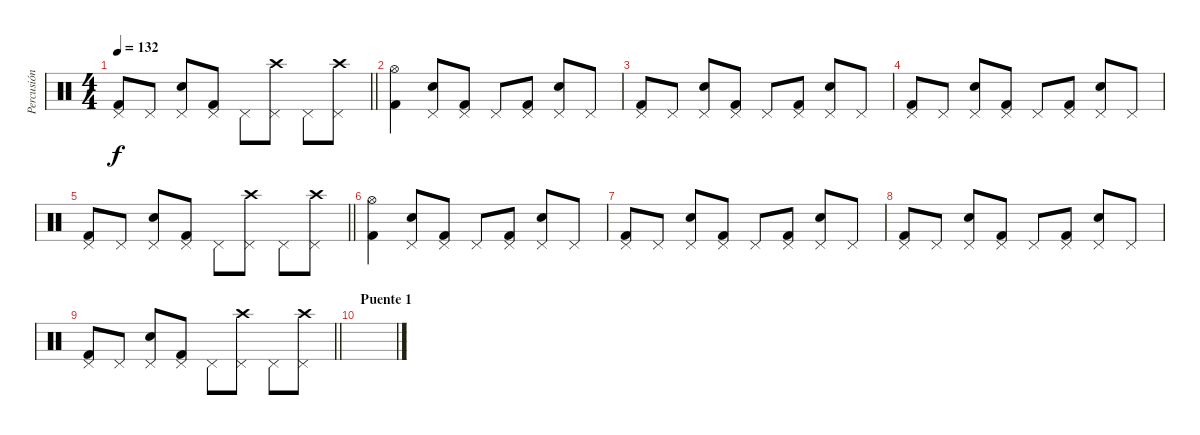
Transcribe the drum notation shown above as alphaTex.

\track ("Percusión" "Percusión") {instrument percussion}
\staff {score}
\articulation defaults
\ts (4 4)
\tempo 132
\clef neutral
\barLineRight lightlight
\ks c
("Pedal Hi-Hat (hit)" "Kick (hit) 2").8{dy f} "Pedal Hi-Hat (hit)".8 ("Pedal Hi-Hat (hit)" "Electric Snare (hit)").8 ("Pedal Hi-Hat (hit)" "Kick (hit) 2").8 "Pedal Hi-Hat (hit)".8 ("Pedal Hi-Hat (hit)" "Crash high (hit)").8 "Pedal Hi-Hat (hit)".8 ("Pedal Hi-Hat (hit)" "Crash high (hit)").8 |
("Hi-Hat (open)" "Kick (hit) 2").4 ("Pedal Hi-Hat (hit)" "Electric Snare (hit)").8 ("Pedal Hi-Hat (hit)" "Kick (hit) 2").8 "Pedal Hi-Hat (hit)".8 ("Pedal Hi-Hat (hit)" "Kick (hit) 2").8 ("Pedal Hi-Hat (hit)" "Electric Snare (hit)").8 "Pedal Hi-Hat (hit)".8 |
("Pedal Hi-Hat (hit)" "Kick (hit) 2").8 "Pedal Hi-Hat (hit)".8 ("Pedal Hi-Hat (hit)" "Electric Snare (hit)").8 ("Pedal Hi-Hat (hit)" "Kick (hit) 2").8 "Pedal Hi-Hat (hit)".8 ("Pedal Hi-Hat (hit)" "Kick (hit) 2").8 ("Pedal Hi-Hat (hit)" "Electric Snare (hit)").8 "Pedal Hi-Hat (hit)".8 |
("Pedal Hi-Hat (hit)" "Kick (hit) 2").8 "Pedal Hi-Hat (hit)".8 ("Pedal Hi-Hat (hit)" "Electric Snare (hit)").8 ("Pedal Hi-Hat (hit)" "Kick (hit) 2").8 "Pedal Hi-Hat (hit)".8 ("Pedal Hi-Hat (hit)" "Kick (hit) 2").8 ("Pedal Hi-Hat (hit)" "Electric Snare (hit)").8 "Pedal Hi-Hat (hit)".8 |
\barLineRight lightlight
("Pedal Hi-Hat (hit)" "Kick (hit) 2").8 "Pedal Hi-Hat (hit)".8 ("Pedal Hi-Hat (hit)" "Electric Snare (hit)").8 ("Pedal Hi-Hat (hit)" "Kick (hit) 2").8 "Pedal Hi-Hat (hit)".8 ("Pedal Hi-Hat (hit)" "Crash high (hit)").8 "Pedal Hi-Hat (hit)".8 ("Pedal Hi-Hat (hit)" "Crash high (hit)").8 |
("Hi-Hat (open)" "Kick (hit) 2").4 ("Pedal Hi-Hat (hit)" "Electric Snare (hit)").8 ("Pedal Hi-Hat (hit)" "Kick (hit) 2").8 "Pedal Hi-Hat (hit)".8 ("Pedal Hi-Hat (hit)" "Kick (hit) 2").8 ("Pedal Hi-Hat (hit)" "Electric Snare (hit)").8 "Pedal Hi-Hat (hit)".8 |
("Pedal Hi-Hat (hit)" "Kick (hit) 2").8 "Pedal Hi-Hat (hit)".8 ("Pedal Hi-Hat (hit)" "Electric Snare (hit)").8 ("Pedal Hi-Hat (hit)" "Kick (hit) 2").8 "Pedal Hi-Hat (hit)".8 ("Pedal Hi-Hat (hit)" "Kick (hit) 2").8 ("Pedal Hi-Hat (hit)" "Electric Snare (hit)").8 "Pedal Hi-Hat (hit)".8 |
("Pedal Hi-Hat (hit)" "Kick (hit) 2").8 "Pedal Hi-Hat (hit)".8 ("Pedal Hi-Hat (hit)" "Electric Snare (hit)").8 ("Pedal Hi-Hat (hit)" "Kick (hit) 2").8 "Pedal Hi-Hat (hit)".8 ("Pedal Hi-Hat (hit)" "Kick (hit) 2").8 ("Pedal Hi-Hat (hit)" "Electric Snare (hit)").8 "Pedal Hi-Hat (hit)".8 |
\barLineRight lightlight
("Pedal Hi-Hat (hit)" "Kick (hit) 2").8 "Pedal Hi-Hat (hit)".8 ("Pedal Hi-Hat (hit)" "Electric Snare (hit)").8 ("Pedal Hi-Hat (hit)" "Kick (hit) 2").8 "Pedal Hi-Hat (hit)".8 ("Pedal Hi-Hat (hit)" "Crash high (hit)").8 "Pedal Hi-Hat (hit)".8 ("Pedal Hi-Hat (hit)" "Crash high (hit)").8 |
\section ("" "Puente 1")
